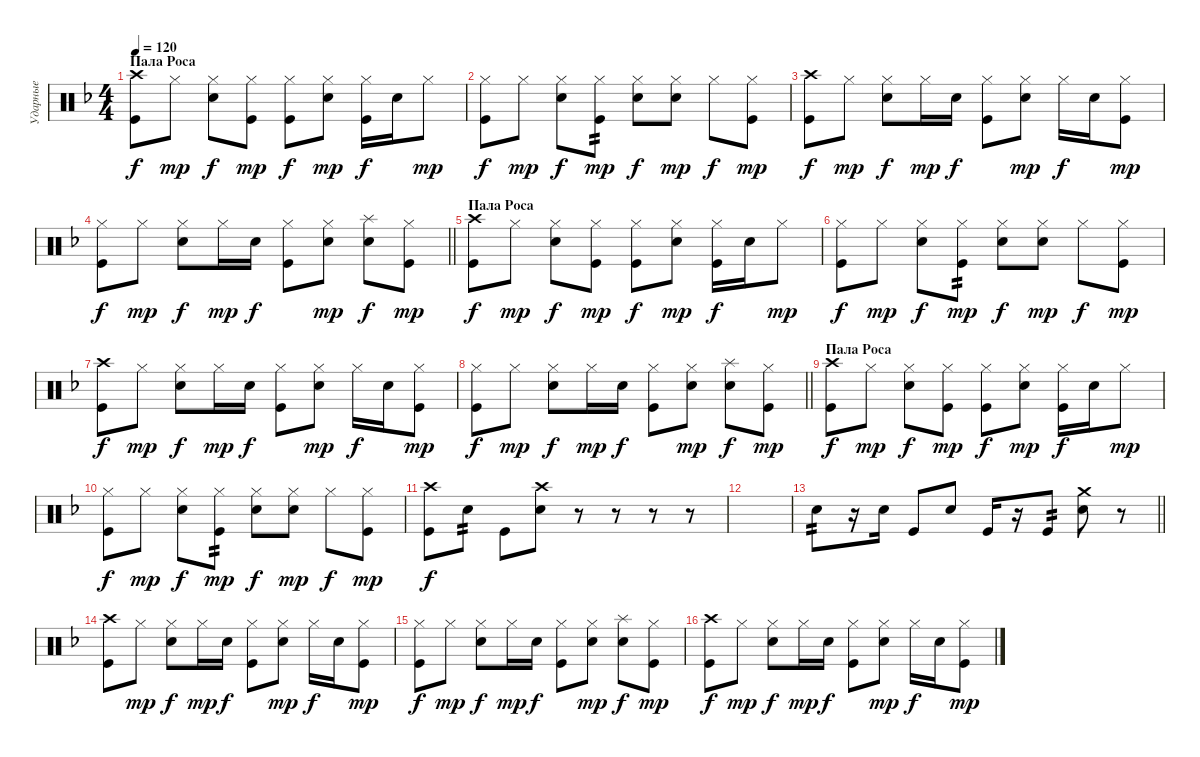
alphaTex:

\track ("Ударные" "Ударные") {instrument percussion}
\staff {score}
\articulation defaults
\ts (4 4)
\section ("" "Пала Роса")
\tempo 120
\clef neutral
\ks dminor
("Crash high (hit)" "Kick (hit)").8{dy f} "Hi-Hat (closed)".8{dy mp} ("Hi-Hat (closed)" "Snare (hit) 2").8{dy f} ("Hi-Hat (closed)" "Kick (hit)").8{dy mp} ("Hi-Hat (closed)" "Kick (hit)").8{dy f} ("Hi-Hat (closed)" "Snare (hit) 2").8{dy mp} ("Hi-Hat (closed)" "Kick (hit)").16{dy f} "Snare (hit) 2".16 "Hi-Hat (closed)".8{dy mp} |
("Hi-Hat (closed)" "Kick (hit)").8{dy f} "Hi-Hat (closed)".8{dy mp} ("Hi-Hat (closed)" "Snare (hit) 2").8{dy f} ("Hi-Hat (closed)" "Kick (hit)").8{tp 2 dy mp} ("Hi-Hat (closed)" "Snare (hit) 2").8{dy f} ("Hi-Hat (closed)" "Snare (hit) 2").8{dy mp} "Hi-Hat (closed)".8{dy f} ("Hi-Hat (closed)" "Kick (hit)").8{dy mp} |
("Crash high (hit)" "Kick (hit)").8{dy f} "Hi-Hat (closed)".8{dy mp} ("Hi-Hat (closed)" "Snare (hit) 2").8{dy f} "Hi-Hat (closed)".16{dy mp} "Snare (hit) 2".16{dy f} ("Hi-Hat (closed)" "Kick (hit)").8 ("Hi-Hat (closed)" "Snare (hit) 2").8{dy mp} "Hi-Hat (closed)".16{dy f} "Snare (hit) 2".16 ("Hi-Hat (closed)" "Kick (hit)").8{dy mp} |
\barLineRight lightlight
("Hi-Hat (closed)" "Kick (hit)").8{dy f} "Hi-Hat (closed)".8{dy mp} ("Hi-Hat (closed)" "Snare (hit) 2").8{dy f} "Hi-Hat (closed)".16{dy mp} "Snare (hit) 2".16{dy f} ("Hi-Hat (closed)" "Kick (hit)").8 ("Hi-Hat (closed)" "Snare (hit) 2").8{dy mp} ("Splash (hit)" "Snare (hit) 2").8{dy f} ("Hi-Hat (closed)" "Kick (hit)").8{dy mp} |
\section ("" "Пала Роса")
("Crash high (hit)" "Kick (hit)").8{dy f} "Hi-Hat (closed)".8{dy mp} ("Hi-Hat (closed)" "Snare (hit) 2").8{dy f} ("Hi-Hat (closed)" "Kick (hit)").8{dy mp} ("Hi-Hat (closed)" "Kick (hit)").8{dy f} ("Hi-Hat (closed)" "Snare (hit) 2").8{dy mp} ("Hi-Hat (closed)" "Kick (hit)").16{dy f} "Snare (hit) 2".16 "Hi-Hat (closed)".8{dy mp} |
("Hi-Hat (closed)" "Kick (hit)").8{dy f} "Hi-Hat (closed)".8{dy mp} ("Hi-Hat (closed)" "Snare (hit) 2").8{dy f} ("Hi-Hat (closed)" "Kick (hit)").8{tp 2 dy mp} ("Hi-Hat (closed)" "Snare (hit) 2").8{dy f} ("Hi-Hat (closed)" "Snare (hit) 2").8{dy mp} "Hi-Hat (closed)".8{dy f} ("Hi-Hat (closed)" "Kick (hit)").8{dy mp} |
("Crash high (hit)" "Kick (hit)").8{dy f} "Hi-Hat (closed)".8{dy mp} ("Hi-Hat (closed)" "Snare (hit) 2").8{dy f} "Hi-Hat (closed)".16{dy mp} "Snare (hit) 2".16{dy f} ("Hi-Hat (closed)" "Kick (hit)").8 ("Hi-Hat (closed)" "Snare (hit) 2").8{dy mp} "Hi-Hat (closed)".16{dy f} "Snare (hit) 2".16 ("Hi-Hat (closed)" "Kick (hit)").8{dy mp} |
\barLineRight lightlight
("Hi-Hat (closed)" "Kick (hit)").8{dy f} "Hi-Hat (closed)".8{dy mp} ("Hi-Hat (closed)" "Snare (hit) 2").8{dy f} "Hi-Hat (closed)".16{dy mp} "Snare (hit) 2".16{dy f} ("Hi-Hat (closed)" "Kick (hit)").8 ("Hi-Hat (closed)" "Snare (hit) 2").8{dy mp} ("Splash (hit)" "Snare (hit) 2").8{dy f} ("Hi-Hat (closed)" "Kick (hit)").8{dy mp} |
\section ("" "Пала Роса")
("Crash high (hit)" "Kick (hit)").8{dy f} "Hi-Hat (closed)".8{dy mp} ("Hi-Hat (closed)" "Snare (hit) 2").8{dy f} ("Hi-Hat (closed)" "Kick (hit)").8{dy mp} ("Hi-Hat (closed)" "Kick (hit)").8{dy f} ("Hi-Hat (closed)" "Snare (hit) 2").8{dy mp} ("Hi-Hat (closed)" "Kick (hit)").16{dy f} "Snare (hit) 2".16 "Hi-Hat (closed)".8{dy mp} |
("Hi-Hat (closed)" "Kick (hit)").8{dy f} "Hi-Hat (closed)".8{dy mp} ("Hi-Hat (closed)" "Snare (hit) 2").8{dy f} ("Hi-Hat (closed)" "Kick (hit)").8{tp 2 dy mp} ("Hi-Hat (closed)" "Snare (hit) 2").8{dy f} ("Hi-Hat (closed)" "Snare (hit) 2").8{dy mp} "Hi-Hat (closed)".8{dy f} ("Hi-Hat (closed)" "Kick (hit)").8{dy mp} |
("Crash high (hit)" "Kick (hit)").8{dy f} "Snare (hit) 2".8{tp 2} "Kick (hit)".8 ("Crash high (hit)" "Snare (hit) 2").8 r.8 r.8 r.8 r.8 |
|
\barLineRight lightlight "Snare (hit) 2".8{tp 2}
r.16 "Snare (hit) 2".16 "Kick (hit)".8 "Snare (hit) 2".8 "Kick (hit)".16 r.16 "Kick (hit)".8{tp 2} ("Crash medium (hit)" "Snare (hit) 2").8 r.8 |
("Crash high (hit)" "Kick (hit)").8 "Hi-Hat (closed)".8{dy mp} ("Hi-Hat (closed)" "Snare (hit) 2").8{dy f} "Hi-Hat (closed)".16{dy mp} "Snare (hit) 2".16{dy f} ("Hi-Hat (closed)" "Kick (hit)").8 ("Hi-Hat (closed)" "Snare (hit) 2").8{dy mp} "Hi-Hat (closed)".16{dy f} "Snare (hit) 2".16 ("Hi-Hat (closed)" "Kick (hit)").8{dy mp} |
("Hi-Hat (closed)" "Kick (hit)").8{dy f} "Hi-Hat (closed)".8{dy mp} ("Hi-Hat (closed)" "Snare (hit) 2").8{dy f} "Hi-Hat (closed)".16{dy mp} "Snare (hit) 2".16{dy f} ("Hi-Hat (closed)" "Kick (hit)").8 ("Hi-Hat (closed)" "Snare (hit) 2").8{dy mp} ("Splash (hit)" "Snare (hit) 2").8{dy f} ("Hi-Hat (closed)" "Kick (hit)").8{dy mp} |
("Crash high (hit)" "Kick (hit)").8{dy f} "Hi-Hat (closed)".8{dy mp} ("Hi-Hat (closed)" "Snare (hit) 2").8{dy f} "Hi-Hat (closed)".16{dy mp} "Snare (hit) 2".16{dy f} ("Hi-Hat (closed)" "Kick (hit)").8 ("Hi-Hat (closed)" "Snare (hit) 2").8{dy mp} "Hi-Hat (closed)".16{dy f} "Snare (hit) 2".16 ("Hi-Hat (closed)" "Kick (hit)").8{dy mp}
